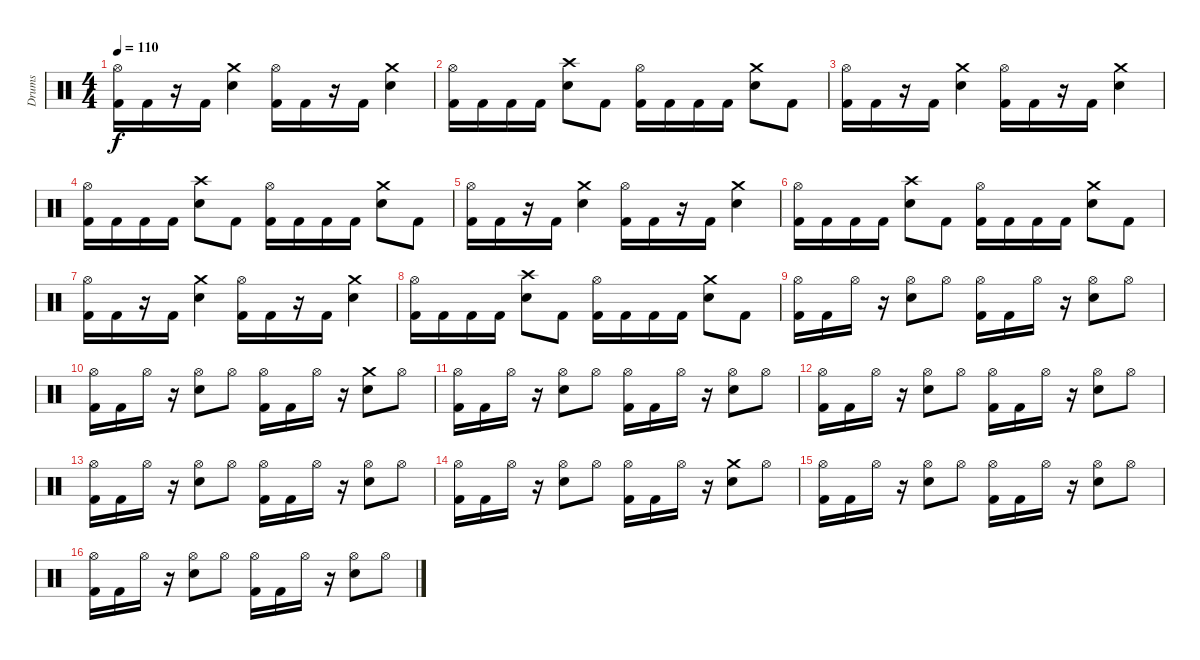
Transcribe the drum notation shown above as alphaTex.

\track ("Drums" "Drums") {instrument percussion}
\staff {score}
\articulation defaults
\ts (4 4)
\tempo 110
\clef neutral
\ks c
("Hi-Hat (open)" "Kick (hit) 2").16{dy f} "Kick (hit) 2".16 r.16 "Kick (hit) 2".16 ("Crash medium (hit)" "Electric Snare (hit)").4 ("Hi-Hat (open)" "Kick (hit) 2").16 "Kick (hit) 2".16 r.16 "Kick (hit) 2".16 ("Crash medium (hit)" "Electric Snare (hit)").4 |
("Hi-Hat (open)" "Kick (hit) 2").16 "Kick (hit) 2".16 "Kick (hit) 2".16 "Kick (hit) 2".16 ("Crash high (hit)" "Electric Snare (hit)").8 "Kick (hit) 2".8 ("Hi-Hat (open)" "Kick (hit) 2").16 "Kick (hit) 2".16 "Kick (hit) 2".16 "Kick (hit) 2".16 ("Crash medium (hit)" "Electric Snare (hit)").8 "Kick (hit) 2".8 |
("Hi-Hat (open)" "Kick (hit) 2").16 "Kick (hit) 2".16 r.16 "Kick (hit) 2".16 ("Crash medium (hit)" "Electric Snare (hit)").4 ("Hi-Hat (open)" "Kick (hit) 2").16 "Kick (hit) 2".16 r.16 "Kick (hit) 2".16 ("Crash medium (hit)" "Electric Snare (hit)").4 |
("Hi-Hat (open)" "Kick (hit) 2").16 "Kick (hit) 2".16 "Kick (hit) 2".16 "Kick (hit) 2".16 ("Crash high (hit)" "Electric Snare (hit)").8 "Kick (hit) 2".8 ("Hi-Hat (open)" "Kick (hit) 2").16 "Kick (hit) 2".16 "Kick (hit) 2".16 "Kick (hit) 2".16 ("Crash medium (hit)" "Electric Snare (hit)").8 "Kick (hit) 2".8 |
("Hi-Hat (open)" "Kick (hit) 2").16 "Kick (hit) 2".16 r.16 "Kick (hit) 2".16 ("Crash medium (hit)" "Electric Snare (hit)").4 ("Hi-Hat (open)" "Kick (hit) 2").16 "Kick (hit) 2".16 r.16 "Kick (hit) 2".16 ("Crash medium (hit)" "Electric Snare (hit)").4 |
("Hi-Hat (open)" "Kick (hit) 2").16 "Kick (hit) 2".16 "Kick (hit) 2".16 "Kick (hit) 2".16 ("Crash high (hit)" "Electric Snare (hit)").8 "Kick (hit) 2".8 ("Hi-Hat (open)" "Kick (hit) 2").16 "Kick (hit) 2".16 "Kick (hit) 2".16 "Kick (hit) 2".16 ("Crash medium (hit)" "Electric Snare (hit)").8 "Kick (hit) 2".8 |
("Hi-Hat (open)" "Kick (hit) 2").16 "Kick (hit) 2".16 r.16 "Kick (hit) 2".16 ("Crash medium (hit)" "Electric Snare (hit)").4 ("Hi-Hat (open)" "Kick (hit) 2").16 "Kick (hit) 2".16 r.16 "Kick (hit) 2".16 ("Crash medium (hit)" "Electric Snare (hit)").4 |
("Hi-Hat (open)" "Kick (hit) 2").16 "Kick (hit) 2".16 "Kick (hit) 2".16 "Kick (hit) 2".16 ("Crash high (hit)" "Electric Snare (hit)").8 "Kick (hit) 2".8 ("Hi-Hat (open)" "Kick (hit) 2").16 "Kick (hit) 2".16 "Kick (hit) 2".16 "Kick (hit) 2".16 ("Crash medium (hit)" "Electric Snare (hit)").8 "Kick (hit) 2".8 |
("Hi-Hat (open)" "Kick (hit) 2").16 "Kick (hit) 2".16 "Hi-Hat (open)".16 r.16 ("Hi-Hat (open)" "Electric Snare (hit)").8 "Hi-Hat (open)".8 ("Hi-Hat (open)" "Kick (hit) 2").16 "Kick (hit) 2".16 "Hi-Hat (open)".16 r.16 ("Hi-Hat (open)" "Electric Snare (hit)").8 "Hi-Hat (open)".8 |
("Hi-Hat (open)" "Kick (hit) 2").16 "Kick (hit) 2".16 "Hi-Hat (open)".16 r.16 ("Hi-Hat (open)" "Electric Snare (hit)").8 "Hi-Hat (open)".8 ("Hi-Hat (open)" "Kick (hit) 2").16 "Kick (hit) 2".16 "Hi-Hat (open)".16 r.16 ("Crash medium (hit)" "Electric Snare (hit)").8 "Hi-Hat (open)".8 |
("Hi-Hat (open)" "Kick (hit) 2").16 "Kick (hit) 2".16 "Hi-Hat (open)".16 r.16 ("Hi-Hat (open)" "Electric Snare (hit)").8 "Hi-Hat (open)".8 ("Hi-Hat (open)" "Kick (hit) 2").16 "Kick (hit) 2".16 "Hi-Hat (open)".16 r.16 ("Hi-Hat (open)" "Electric Snare (hit)").8 "Hi-Hat (open)".8 |
("Hi-Hat (open)" "Kick (hit) 2").16 "Kick (hit) 2".16 "Hi-Hat (open)".16 r.16 ("Hi-Hat (open)" "Electric Snare (hit)").8 "Hi-Hat (open)".8 ("Hi-Hat (open)" "Kick (hit) 2").16 "Kick (hit) 2".16 "Hi-Hat (open)".16 r.16 ("Hi-Hat (open)" "Electric Snare (hit)").8 "Hi-Hat (open)".8 |
("Hi-Hat (open)" "Kick (hit) 2").16 "Kick (hit) 2".16 "Hi-Hat (open)".16 r.16 ("Hi-Hat (open)" "Electric Snare (hit)").8 "Hi-Hat (open)".8 ("Hi-Hat (open)" "Kick (hit) 2").16 "Kick (hit) 2".16 "Hi-Hat (open)".16 r.16 ("Hi-Hat (open)" "Electric Snare (hit)").8 "Hi-Hat (open)".8 |
("Hi-Hat (open)" "Kick (hit) 2").16 "Kick (hit) 2".16 "Hi-Hat (open)".16 r.16 ("Hi-Hat (open)" "Electric Snare (hit)").8 "Hi-Hat (open)".8 ("Hi-Hat (open)" "Kick (hit) 2").16 "Kick (hit) 2".16 "Hi-Hat (open)".16 r.16 ("Crash medium (hit)" "Electric Snare (hit)").8 "Hi-Hat (open)".8 |
("Hi-Hat (open)" "Kick (hit) 2").16 "Kick (hit) 2".16 "Hi-Hat (open)".16 r.16 ("Hi-Hat (open)" "Electric Snare (hit)").8 "Hi-Hat (open)".8 ("Hi-Hat (open)" "Kick (hit) 2").16 "Kick (hit) 2".16 "Hi-Hat (open)".16 r.16 ("Hi-Hat (open)" "Electric Snare (hit)").8 "Hi-Hat (open)".8 |
("Hi-Hat (open)" "Kick (hit) 2").16 "Kick (hit) 2".16 "Hi-Hat (open)".16 r.16 ("Hi-Hat (open)" "Electric Snare (hit)").8 "Hi-Hat (open)".8 ("Hi-Hat (open)" "Kick (hit) 2").16 "Kick (hit) 2".16 "Hi-Hat (open)".16 r.16 ("Hi-Hat (open)" "Electric Snare (hit)").8 "Hi-Hat (open)".8
